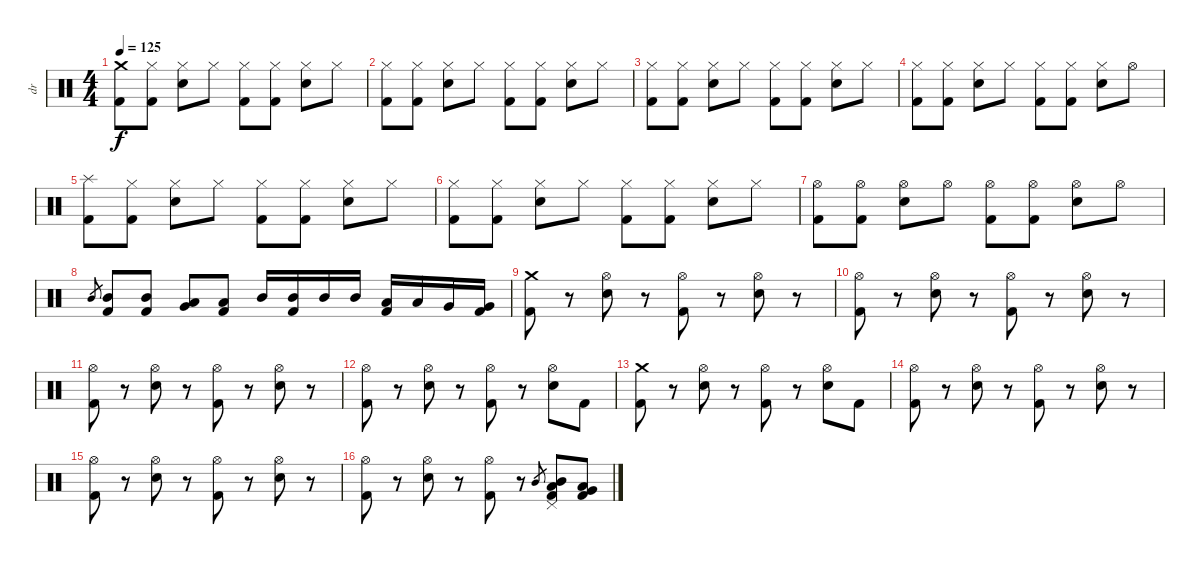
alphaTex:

\track ("dr" "dr") {instrument percussion}
\staff {score}
\articulation defaults
\ts (4 4)
\tempo 125
\clef neutral
\ks c
("Crash medium (hit)" "Kick (hit) 2").8{dy f} ("Hi-Hat (closed)" "Kick (hit) 2").8 ("Hi-Hat (closed)" "Snare (hit) 2").8 "Hi-Hat (closed)".8 ("Hi-Hat (closed)" "Kick (hit) 2").8 ("Hi-Hat (closed)" "Kick (hit) 2").8 ("Hi-Hat (closed)" "Snare (hit) 2").8 "Hi-Hat (closed)".8 |
("Hi-Hat (closed)" "Kick (hit) 2").8 ("Hi-Hat (closed)" "Kick (hit) 2").8 ("Hi-Hat (closed)" "Snare (hit) 2").8 "Hi-Hat (closed)".8 ("Hi-Hat (closed)" "Kick (hit) 2").8 ("Hi-Hat (closed)" "Kick (hit) 2").8 ("Hi-Hat (closed)" "Snare (hit) 2").8 "Hi-Hat (closed)".8 |
("Hi-Hat (closed)" "Kick (hit) 2").8 ("Hi-Hat (closed)" "Kick (hit) 2").8 ("Hi-Hat (closed)" "Snare (hit) 2").8 "Hi-Hat (closed)".8 ("Hi-Hat (closed)" "Kick (hit) 2").8 ("Hi-Hat (closed)" "Kick (hit) 2").8 ("Hi-Hat (closed)" "Snare (hit) 2").8 "Hi-Hat (closed)".8 |
("Hi-Hat (closed)" "Kick (hit) 2").8 ("Hi-Hat (closed)" "Kick (hit) 2").8 ("Hi-Hat (closed)" "Snare (hit) 2").8 "Hi-Hat (closed)".8 ("Hi-Hat (closed)" "Kick (hit) 2").8 ("Hi-Hat (closed)" "Kick (hit) 2").8 ("Hi-Hat (closed)" "Snare (hit) 2").8 "Hi-Hat (open)".8 |
("Splash (hit)" "Kick (hit) 2").8 ("Hi-Hat (closed)" "Kick (hit) 2").8 ("Hi-Hat (closed)" "Snare (hit) 2").8 "Hi-Hat (closed)".8 ("Hi-Hat (closed)" "Kick (hit) 2").8 ("Hi-Hat (closed)" "Kick (hit) 2").8 ("Hi-Hat (closed)" "Snare (hit) 2").8 "Hi-Hat (closed)".8 |
("Hi-Hat (closed)" "Kick (hit) 2").8 ("Hi-Hat (closed)" "Kick (hit) 2").8 ("Hi-Hat (closed)" "Snare (hit) 2").8 "Hi-Hat (closed)".8 ("Hi-Hat (closed)" "Kick (hit) 2").8 ("Hi-Hat (closed)" "Kick (hit) 2").8 ("Hi-Hat (closed)" "Snare (hit) 2").8 "Hi-Hat (closed)".8 |
("Hi-Hat (open)" "Kick (hit) 2").8 ("Hi-Hat (open)" "Kick (hit) 2").8 ("Hi-Hat (open)" "Snare (hit) 2").8 "Hi-Hat (open)".8 ("Hi-Hat (open)" "Kick (hit) 2").8 ("Hi-Hat (open)" "Kick (hit) 2").8 ("Hi-Hat (open)" "Snare (hit) 2").8 "Hi-Hat (open)".8 |
"Mid Tom (hit)"{h}.8{gr} ("Mid Tom (hit)" "Kick (hit) 2").8 ("Mid Tom (hit)" "Kick (hit) 2").8 ("Low Tom (hit)" "Very Low Tom (hit)").8 ("Low Floor Tom (hit)" "Kick (hit) 2").8 "Mid Tom (hit)".16 ("Mid Tom (hit)" "Kick (hit) 2").16 "Mid Tom (hit)".16 "Mid Tom (hit)".16 ("Low Tom (hit)" "Kick (hit) 2").16 "Low Tom (hit)".16 "Very Low Tom (hit)".16 ("Very Low Tom (hit)" "Kick (hit) 2").16 |
("Crash medium (hit)" "Kick (hit) 2").8 r.8 ("Hi-Hat (open)" "Snare (hit) 2").8 r.8 ("Hi-Hat (open)" "Kick (hit) 2").8 r.8 ("Hi-Hat (open)" "Snare (hit) 2").8 r.8 |
("Hi-Hat (open)" "Kick (hit) 2").8 r.8 ("Hi-Hat (open)" "Snare (hit) 2").8 r.8 ("Hi-Hat (open)" "Kick (hit) 2").8 r.8 ("Hi-Hat (open)" "Snare (hit) 2").8 r.8 |
("Hi-Hat (open)" "Kick (hit) 2").8 r.8 ("Hi-Hat (open)" "Snare (hit) 2").8 r.8 ("Hi-Hat (open)" "Kick (hit) 2").8 r.8 ("Hi-Hat (open)" "Snare (hit) 2").8 r.8 |
("Hi-Hat (open)" "Kick (hit) 2").8 r.8 ("Hi-Hat (open)" "Snare (hit) 2").8 r.8 ("Hi-Hat (open)" "Kick (hit) 2").8 r.8 ("Hi-Hat (open)" "Snare (hit) 2").8 "Kick (hit) 2".8 |
("Crash medium (hit)" "Kick (hit) 2").8 r.8 ("Hi-Hat (open)" "Snare (hit) 2").8 r.8 ("Hi-Hat (open)" "Kick (hit) 2").8 r.8 ("Hi-Hat (open)" "Snare (hit) 2").8 "Kick (hit) 2".8 |
("Hi-Hat (open)" "Kick (hit) 2").8 r.8 ("Hi-Hat (open)" "Snare (hit) 2").8 r.8 ("Hi-Hat (open)" "Kick (hit) 2").8 r.8 ("Hi-Hat (open)" "Snare (hit) 2").8 r.8 |
("Hi-Hat (open)" "Kick (hit) 2").8 r.8 ("Hi-Hat (open)" "Snare (hit) 2").8 r.8 ("Hi-Hat (open)" "Kick (hit) 2").8 r.8 ("Hi-Hat (open)" "Snare (hit) 2").8 r.8 |
("Hi-Hat (open)" "Kick (hit) 2").8 r.8 ("Hi-Hat (open)" "Snare (hit) 2").8 r.8 ("Hi-Hat (open)" "Kick (hit) 2").8 r.8 "Mid Tom (hit)"{h}.8{gr} ("Pedal Hi-Hat (hit)" "Mid Tom (hit)" "Low Tom (hit)" "Kick (hit) 2").8 ("Low Tom (hit)" "Very Low Tom (hit)" "Kick (hit) 2").8
